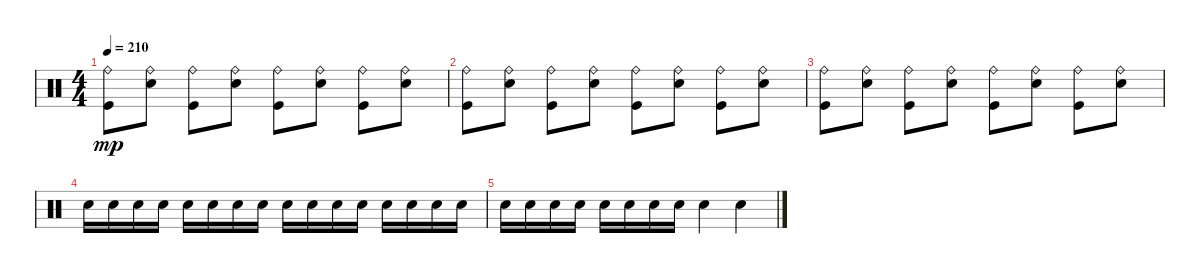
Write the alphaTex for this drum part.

\track "" {instrument percussion}
\staff {score}
\articulation defaults
\ts (4 4)
\tempo 210
\clef neutral
\ks c
("Kick (hit)" "Ride (bell)").8{dy mp} ("Electric Snare (hit)" "Ride (bell)").8 ("Kick (hit)" "Ride (bell)").8 ("Electric Snare (hit)" "Ride (bell)").8 ("Kick (hit)" "Ride (bell)").8 ("Electric Snare (hit)" "Ride (bell)").8 ("Kick (hit)" "Ride (bell)").8 ("Electric Snare (hit)" "Ride (bell)").8 |
("Kick (hit)" "Ride (bell)").8 ("Electric Snare (hit)" "Ride (bell)").8 ("Kick (hit)" "Ride (bell)").8 ("Electric Snare (hit)" "Ride (bell)").8 ("Kick (hit)" "Ride (bell)").8 ("Electric Snare (hit)" "Ride (bell)").8 ("Kick (hit)" "Ride (bell)").8 ("Electric Snare (hit)" "Ride (bell)").8 |
("Kick (hit)" "Ride (bell)").8 ("Electric Snare (hit)" "Ride (bell)").8 ("Kick (hit)" "Ride (bell)").8 ("Electric Snare (hit)" "Ride (bell)").8 ("Kick (hit)" "Ride (bell)").8 ("Electric Snare (hit)" "Ride (bell)").8 ("Kick (hit)" "Ride (bell)").8 ("Electric Snare (hit)" "Ride (bell)").8 |
"Electric Snare (hit)".16 "Electric Snare (hit)".16 "Electric Snare (hit)".16 "Electric Snare (hit)".16 "Electric Snare (hit)".16 "Electric Snare (hit)".16 "Electric Snare (hit)".16 "Electric Snare (hit)".16 "Electric Snare (hit)".16 "Electric Snare (hit)".16 "Electric Snare (hit)".16 "Electric Snare (hit)".16 "Electric Snare (hit)".16 "Electric Snare (hit)".16 "Electric Snare (hit)".16 "Electric Snare (hit)".16 |
"Electric Snare (hit)".16 "Electric Snare (hit)".16 "Electric Snare (hit)".16 "Electric Snare (hit)".16 "Electric Snare (hit)".16 "Electric Snare (hit)".16 "Electric Snare (hit)".16 "Electric Snare (hit)".16 "Electric Snare (hit)".4 "Electric Snare (hit)".4
